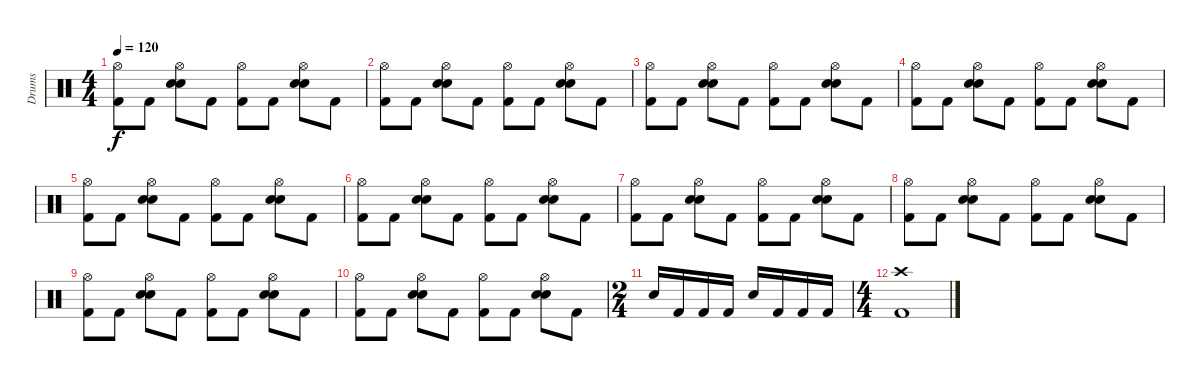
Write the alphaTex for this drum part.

\track ("Drums" "Drums") {instrument percussion}
\staff {score}
\articulation defaults
\ts (4 4)
\tempo 120
\clef neutral
\ks c
("Hi-Hat (open)" "Kick (hit) 2").8{dy f} "Kick (hit) 2".8 ("Hi-Hat (open)" "Electric Snare (hit)" "Snare (hit) 2").8 "Kick (hit) 2".8 ("Hi-Hat (open)" "Kick (hit) 2").8 "Kick (hit) 2".8 ("Hi-Hat (open)" "Electric Snare (hit)" "Snare (hit) 2").8 "Kick (hit) 2".8 |
("Hi-Hat (open)" "Kick (hit) 2").8 "Kick (hit) 2".8 ("Hi-Hat (open)" "Electric Snare (hit)" "Snare (hit) 2").8 "Kick (hit) 2".8 ("Hi-Hat (open)" "Kick (hit) 2").8 "Kick (hit) 2".8 ("Hi-Hat (open)" "Electric Snare (hit)" "Snare (hit) 2").8 "Kick (hit) 2".8 |
("Hi-Hat (open)" "Kick (hit) 2").8 "Kick (hit) 2".8 ("Hi-Hat (open)" "Electric Snare (hit)" "Snare (hit) 2").8 "Kick (hit) 2".8 ("Hi-Hat (open)" "Kick (hit) 2").8 "Kick (hit) 2".8 ("Hi-Hat (open)" "Electric Snare (hit)" "Snare (hit) 2").8 "Kick (hit) 2".8 |
("Hi-Hat (open)" "Kick (hit) 2").8 "Kick (hit) 2".8 ("Hi-Hat (open)" "Electric Snare (hit)" "Snare (hit) 2").8 "Kick (hit) 2".8 ("Hi-Hat (open)" "Kick (hit) 2").8 "Kick (hit) 2".8 ("Hi-Hat (open)" "Electric Snare (hit)" "Snare (hit) 2").8 "Kick (hit) 2".8 |
("Hi-Hat (open)" "Kick (hit) 2").8 "Kick (hit) 2".8 ("Hi-Hat (open)" "Electric Snare (hit)" "Snare (hit) 2").8 "Kick (hit) 2".8 ("Hi-Hat (open)" "Kick (hit) 2").8 "Kick (hit) 2".8 ("Hi-Hat (open)" "Electric Snare (hit)" "Snare (hit) 2").8 "Kick (hit) 2".8 |
("Hi-Hat (open)" "Kick (hit) 2").8 "Kick (hit) 2".8 ("Hi-Hat (open)" "Electric Snare (hit)" "Snare (hit) 2").8 "Kick (hit) 2".8 ("Hi-Hat (open)" "Kick (hit) 2").8 "Kick (hit) 2".8 ("Hi-Hat (open)" "Electric Snare (hit)" "Snare (hit) 2").8 "Kick (hit) 2".8 |
("Hi-Hat (open)" "Kick (hit) 2").8 "Kick (hit) 2".8 ("Hi-Hat (open)" "Electric Snare (hit)" "Snare (hit) 2").8 "Kick (hit) 2".8 ("Hi-Hat (open)" "Kick (hit) 2").8 "Kick (hit) 2".8 ("Hi-Hat (open)" "Electric Snare (hit)" "Snare (hit) 2").8 "Kick (hit) 2".8 |
("Hi-Hat (open)" "Kick (hit) 2").8 "Kick (hit) 2".8 ("Hi-Hat (open)" "Electric Snare (hit)" "Snare (hit) 2").8 "Kick (hit) 2".8 ("Hi-Hat (open)" "Kick (hit) 2").8 "Kick (hit) 2".8 ("Hi-Hat (open)" "Electric Snare (hit)" "Snare (hit) 2").8 "Kick (hit) 2".8 |
("Hi-Hat (open)" "Kick (hit) 2").8 "Kick (hit) 2".8 ("Hi-Hat (open)" "Electric Snare (hit)" "Snare (hit) 2").8 "Kick (hit) 2".8 ("Hi-Hat (open)" "Kick (hit) 2").8 "Kick (hit) 2".8 ("Hi-Hat (open)" "Electric Snare (hit)" "Snare (hit) 2").8 "Kick (hit) 2".8 |
("Hi-Hat (open)" "Kick (hit) 2").8 "Kick (hit) 2".8 ("Hi-Hat (open)" "Electric Snare (hit)" "Snare (hit) 2").8 "Kick (hit) 2".8 ("Hi-Hat (open)" "Kick (hit) 2").8 "Kick (hit) 2".8 ("Hi-Hat (open)" "Electric Snare (hit)" "Snare (hit) 2").8 "Kick (hit) 2".8 |
\ts (2 4)
"Electric Snare (hit)".16 "Kick (hit) 2".16 "Kick (hit) 2".16 "Kick (hit) 2".16 "Electric Snare (hit)".16 "Kick (hit) 2".16 "Kick (hit) 2".16 "Kick (hit) 2".16 |
\ts (4 4)
("Crash high (hit)" "Kick (hit) 2").1
